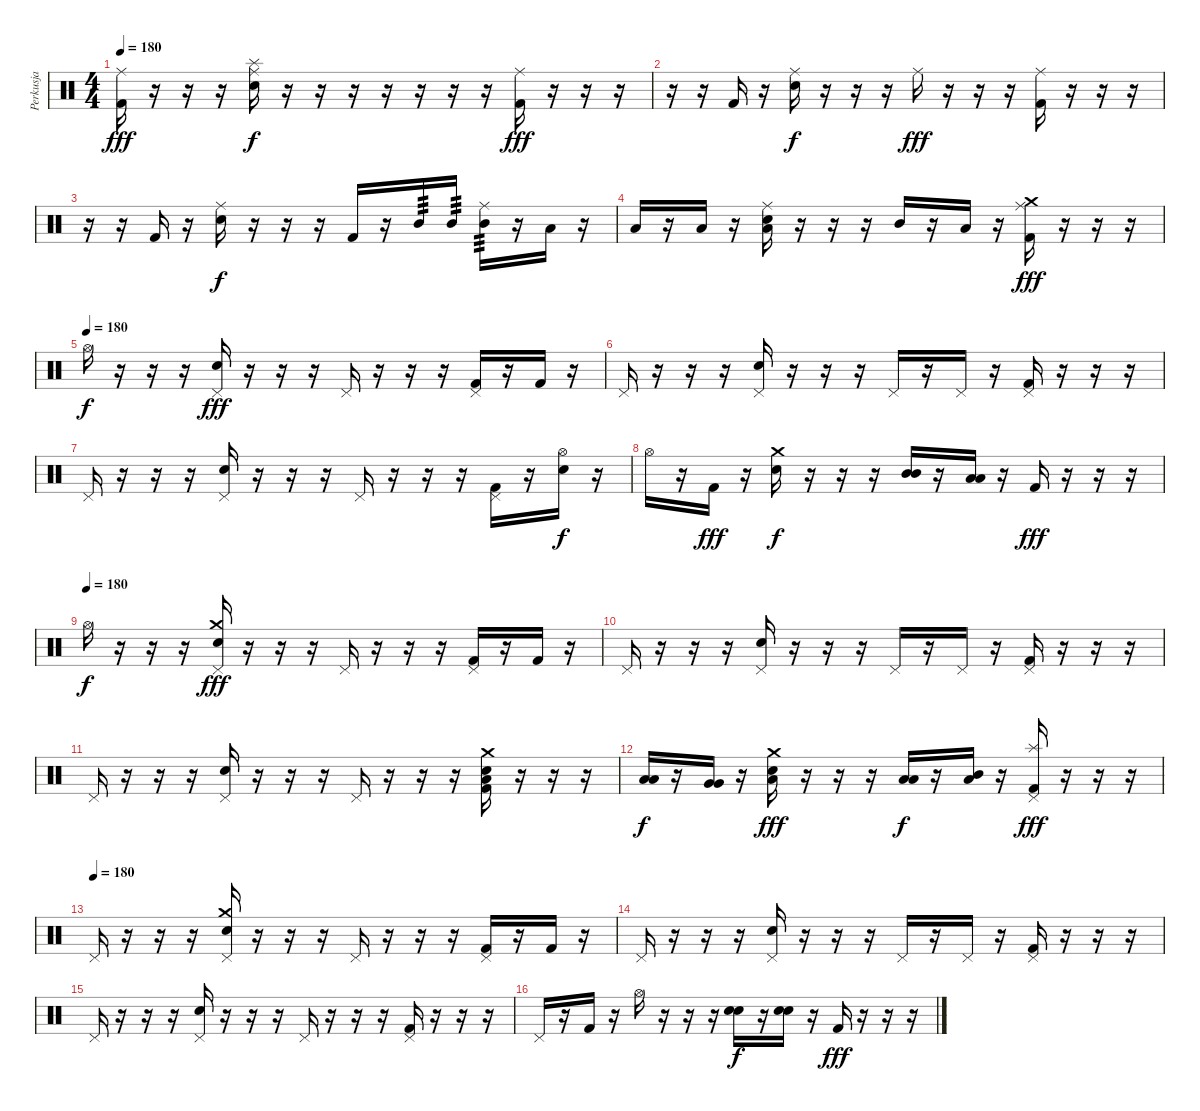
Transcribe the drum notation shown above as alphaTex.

\track ("Perkusja" "Perkusja") {instrument percussion}
\staff {score}
\articulation defaults
\ts (4 4)
\tempo 180
\clef neutral
\ks c
("Ride (middle)" "Kick (hit) 2").16{dy fff} r.16 r.16 r.16 ("Snare (hit) 2" "Splash (hit)" "Ride (middle)").16{dy f} r.16 r.16 r.16 r.16 r.16 r.16 r.16 ("Ride (middle)" "Kick (hit) 2").16{dy fff} r.16 r.16 r.16 |
r.16 r.16 "Kick (hit) 2".16 r.16 ("Snare (hit) 2" "Ride (middle)").16{dy f} r.16 r.16 r.16 "Ride (middle)".16{dy fff} r.16 r.16 r.16 ("Ride (middle)" "Kick (hit) 2").16 r.16 r.16 r.16 |
r.16 r.16 "Kick (hit) 2".16 r.16 ("Snare (hit) 2" "Ride (middle)").16{dy f} r.16 r.16 r.16 "Kick (hit) 2".16 r.16 "Mid Tom (hit)".16{tp 3} "Mid Tom (hit)".16{tp 3} ("Mid Tom (hit)" "Ride (middle)").16{tp 3} r.16 "Low Tom (hit)".16 r.16 |
"Low Tom (hit)".16 r.16 "Low Tom (hit)".16 r.16 ("Snare (hit) 2" "Low Tom (hit)" "Ride (middle)").16 r.16 r.16 r.16 "Mid Tom (hit)".16 r.16 "Low Tom (hit)".16 r.16 ("Crash medium (hit)" "Ride (middle)" "Kick (hit) 2").16{dy fff} r.16 r.16 r.16 |
\tempo (180)
"Hi-Hat (open)".16{dy f} r.16 r.16 r.16 ("Snare (hit) 2" "Pedal Hi-Hat (hit)").16{dy fff} r.16 r.16 r.16 "Pedal Hi-Hat (hit)".16 r.16 r.16 r.16 ("Pedal Hi-Hat (hit)" "Kick (hit) 2").16 r.16 "Kick (hit) 2".16 r.16 |
"Pedal Hi-Hat (hit)".16 r.16 r.16 r.16 ("Snare (hit) 2" "Pedal Hi-Hat (hit)").16 r.16 r.16 r.16 "Pedal Hi-Hat (hit)".16 r.16 "Pedal Hi-Hat (hit)".16 r.16 ("Pedal Hi-Hat (hit)" "Kick (hit) 2").16 r.16 r.16 r.16 |
"Pedal Hi-Hat (hit)".16 r.16 r.16 r.16 ("Snare (hit) 2" "Pedal Hi-Hat (hit)").16 r.16 r.16 r.16 "Pedal Hi-Hat (hit)".16 r.16 r.16 r.16 ("Pedal Hi-Hat (hit)" "Kick (hit) 2").16 r.16 ("Snare (hit) 2" "Hi-Hat (open)").16{dy f} r.16 |
"Hi-Hat (open)".16 r.16 "Kick (hit) 2".16{dy fff} r.16 ("Snare (hit) 2" "Crash medium (hit)").16{dy f} r.16 r.16 r.16 ("Mid Tom (hit)" "Mid Tom (hit)").16 r.16 ("Low Tom (hit)" "Low Tom (hit)").16 r.16 "Kick (hit) 2".16{dy fff} r.16 r.16 r.16 |
\tempo (180)
"Hi-Hat (open)".16{dy f} r.16 r.16 r.16 ("Snare (hit) 2" "Crash medium (hit)" "Pedal Hi-Hat (hit)").16{dy fff} r.16 r.16 r.16 "Pedal Hi-Hat (hit)".16 r.16 r.16 r.16 ("Pedal Hi-Hat (hit)" "Kick (hit) 2").16 r.16 "Kick (hit) 2".16 r.16 |
"Pedal Hi-Hat (hit)".16 r.16 r.16 r.16 ("Snare (hit) 2" "Pedal Hi-Hat (hit)").16 r.16 r.16 r.16 "Pedal Hi-Hat (hit)".16 r.16 "Pedal Hi-Hat (hit)".16 r.16 ("Pedal Hi-Hat (hit)" "Kick (hit) 2").16 r.16 r.16 r.16 |
"Pedal Hi-Hat (hit)".16 r.16 r.16 r.16 ("Snare (hit) 2" "Pedal Hi-Hat (hit)").16 r.16 r.16 r.16 "Pedal Hi-Hat (hit)".16 r.16 r.16 r.16 ("Snare (hit) 2" "Low Tom (hit)" "Crash medium (hit)" "Kick (hit) 2").16 r.16 r.16 r.16 |
("Low Tom (hit)" "Low Tom (hit)").16{dy f} r.16 ("Very Low Tom (hit)" "Very Low Tom (hit)").16 r.16 ("Snare (hit) 2" "Low Tom (hit)" "Crash medium (hit)").16{dy fff} r.16 r.16 r.16 ("Low Tom (hit)" "Low Tom (hit)").16{dy f} r.16 ("Mid Tom (hit)" "Low Tom (hit)").16 r.16 ("Splash (hit)" "Pedal Hi-Hat (hit)" "Kick (hit) 2").16{dy fff} r.16 r.16 r.16 |
\tempo (180)
"Pedal Hi-Hat (hit)".16 r.16 r.16 r.16 ("Snare (hit) 2" "Crash medium (hit)" "Pedal Hi-Hat (hit)").16 r.16 r.16 r.16 "Pedal Hi-Hat (hit)".16 r.16 r.16 r.16 ("Pedal Hi-Hat (hit)" "Kick (hit) 2").16 r.16 "Kick (hit) 2".16 r.16 |
"Pedal Hi-Hat (hit)".16 r.16 r.16 r.16 ("Snare (hit) 2" "Pedal Hi-Hat (hit)").16 r.16 r.16 r.16 "Pedal Hi-Hat (hit)".16 r.16 "Pedal Hi-Hat (hit)".16 r.16 ("Pedal Hi-Hat (hit)" "Kick (hit) 2").16 r.16 r.16 r.16 |
"Pedal Hi-Hat (hit)".16 r.16 r.16 r.16 ("Snare (hit) 2" "Pedal Hi-Hat (hit)").16 r.16 r.16 r.16 "Pedal Hi-Hat (hit)".16 r.16 r.16 r.16 ("Pedal Hi-Hat (hit)" "Kick (hit) 2").16 r.16 r.16 r.16 |
"Pedal Hi-Hat (hit)".16 r.16 "Kick (hit) 2".16 r.16 "Hi-Hat (open)".16 r.16 r.16 r.16 ("Snare (hit) 2" "Snare (hit) 2").16{dy f} r.16 ("Snare (hit) 2" "Snare (hit) 2").16 r.16 "Kick (hit) 2".16{dy fff} r.16 r.16 r.16
